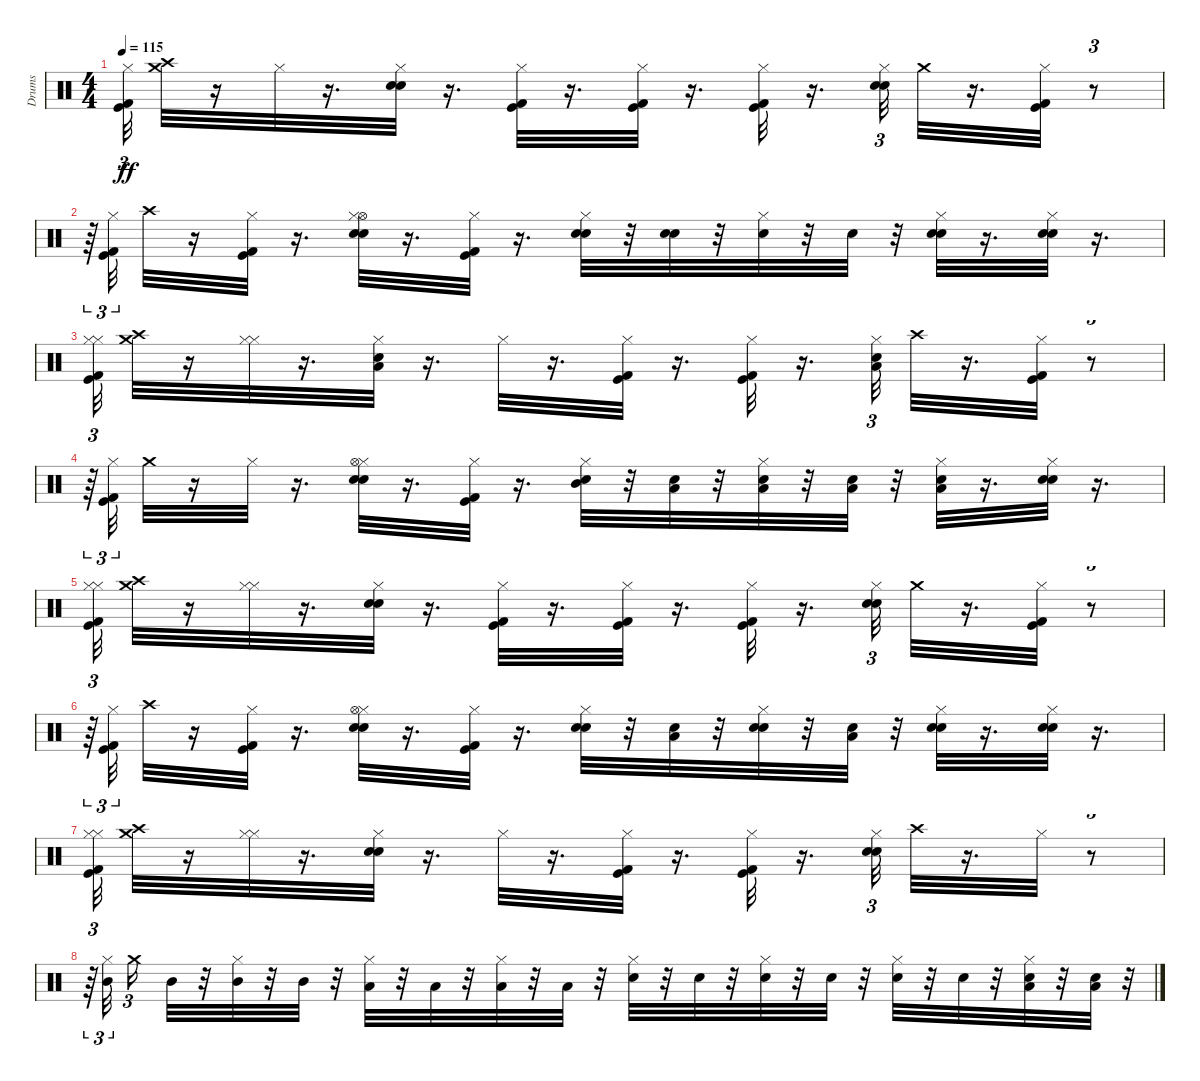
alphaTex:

\track ("Drums" "Drums") {instrument percussion}
\staff {score}
\articulation defaults
\ts (4 4)
\tempo 115
\clef neutral
\ks c
("Hi-Hat (closed)" "Kick (hit) 2" "Kick (hit)").32{tu (3 2) dy ff} ("Crash high (hit)" "Crash medium (hit)").32 r.16 "Hi-Hat (closed)".32 r.16{d} ("Electric Snare (hit)" "Hi-Hat (closed)" "Snare (hit) 2").32 r.16{d} ("Kick (hit) 2" "Kick (hit)" "Hi-Hat (closed)").32 r.16{d} ("Kick (hit)" "Kick (hit) 2" "Hi-Hat (closed)").32 r.16{d} ("Kick (hit) 2" "Hi-Hat (closed)" "Kick (hit)").32 r.16{d} ("Snare (hit) 2" "Electric Snare (hit)" "Hi-Hat (closed)").32{tu (3 2)} "Crash medium (hit)".32 r.16{d} ("Kick (hit)" "Hi-Hat (closed)" "Kick (hit) 2").32 r.8{tu (3 2)} |
r.64{tu (3 2)} ("Hi-Hat (closed)" "Kick (hit)" "Kick (hit) 2").32{tu (3 2)} "Crash high (hit)".32 r.16 ("Kick (hit)" "Hi-Hat (closed)" "Kick (hit) 2").32 r.16{d} ("Hi-Hat (open)" "Electric Snare (hit)" "Hi-Hat (closed)" "Snare (hit) 2").32 r.16{d} ("Kick (hit) 2" "Kick (hit)" "Hi-Hat (closed)").32 r.16{d} ("Electric Snare (hit)" "Snare (hit) 2" "Hi-Hat (closed)").32 r.32 ("Electric Snare (hit)" "Snare (hit) 2").32 r.32 ("Snare (hit) 2" "Hi-Hat (closed)").32 r.32 "Snare (hit) 2".32 r.32 ("Electric Snare (hit)" "Snare (hit) 2" "Hi-Hat (closed)").32 r.16{d} ("Snare (hit) 2" "Hi-Hat (closed)" "Electric Snare (hit)").32 r.16{d} |
("Kick (hit) 2" "Kick (hit)" "Hi-Hat (closed)" "Hi-Hat (closed)").32{tu (3 2)} ("Crash medium (hit)" "Crash high (hit)").32 r.16 ("Hi-Hat (closed)" "Hi-Hat (closed)").32 r.16{d} ("Hi-Hat (closed)" "Snare (hit) 2" "Low Floor Tom (hit)").32 r.16{d} "Hi-Hat (closed)".32 r.16{d} ("Hi-Hat (closed)" "Kick (hit)" "Kick (hit) 2").32 r.16{d} ("Kick (hit) 2" "Kick (hit)" "Hi-Hat (closed)").32 r.16{d} ("Snare (hit) 2" "Hi-Hat (closed)" "Low Floor Tom (hit)").32{tu (3 2)} "Crash high (hit)".32 r.16{d} ("Kick (hit) 2" "Hi-Hat (closed)" "Kick (hit)").32 r.8{tu (3 2)} |
r.64{tu (3 2)} ("Kick (hit) 2" "Hi-Hat (closed)" "Kick (hit)").32{tu (3 2)} "Crash medium (hit)".32 r.16 "Hi-Hat (closed)".32 r.16{d} ("Electric Snare (hit)" "Hi-Hat (closed)" "Snare (hit) 2" "Hi-Hat (open)").32 r.16{d} ("Hi-Hat (closed)" "Kick (hit) 2" "Kick (hit)").32 r.16{d} ("Hi-Hat (closed)" "Snare (hit) 2" "Mid Tom (hit)").32 r.32 ("Snare (hit) 2" "Low Tom (hit)").32 r.32 ("Low Floor Tom (hit)" "Snare (hit) 2" "Hi-Hat (closed)").32 r.32 ("Low Floor Tom (hit)" "Snare (hit) 2").32 r.32 ("Hi-Hat (closed)" "Snare (hit) 2" "Low Tom (hit)").32 r.16{d} ("Hi-Hat (closed)" "Electric Snare (hit)" "Snare (hit) 2").32 r.16{d} |
("Kick (hit)" "Kick (hit) 2" "Hi-Hat (closed)" "Hi-Hat (closed)").32{tu (3 2)} ("Crash medium (hit)" "Crash high (hit)").32 r.16 ("Hi-Hat (closed)" "Hi-Hat (closed)").32 r.16{d} ("Electric Snare (hit)" "Hi-Hat (closed)" "Snare (hit) 2").32 r.16{d} ("Hi-Hat (closed)" "Kick (hit)" "Kick (hit) 2").32 r.16{d} ("Kick (hit) 2" "Kick (hit)" "Hi-Hat (closed)").32 r.16{d} ("Hi-Hat (closed)" "Kick (hit)" "Kick (hit) 2").32 r.16{d} ("Electric Snare (hit)" "Hi-Hat (closed)" "Snare (hit) 2").32{tu (3 2)} "Crash medium (hit)".32 r.16{d} ("Kick (hit) 2" "Hi-Hat (closed)" "Kick (hit)").32 r.8{tu (3 2)} |
r.64{tu (3 2)} ("Kick (hit)" "Hi-Hat (closed)" "Kick (hit) 2").32{tu (3 2)} "Crash high (hit)".32 r.16 ("Kick (hit)" "Kick (hit) 2" "Hi-Hat (closed)").32 r.16{d} ("Electric Snare (hit)" "Hi-Hat (closed)" "Snare (hit) 2" "Hi-Hat (open)").32 r.16{d} ("Kick (hit) 2" "Kick (hit)" "Hi-Hat (closed)").32 r.16{d} ("Snare (hit) 2" "Hi-Hat (closed)" "Electric Snare (hit)").32 r.32 ("Low Floor Tom (hit)" "Snare (hit) 2").32 r.32 ("Electric Snare (hit)" "Snare (hit) 2" "Hi-Hat (closed)").32 r.32 ("Low Floor Tom (hit)" "Snare (hit) 2").32 r.32 ("Hi-Hat (closed)" "Snare (hit) 2" "Electric Snare (hit)").32 r.16{d} ("Electric Snare (hit)" "Snare (hit) 2" "Hi-Hat (closed)").32 r.16{d} |
("Hi-Hat (closed)" "Kick (hit) 2" "Kick (hit)" "Hi-Hat (closed)").32{tu (3 2)} ("Crash medium (hit)" "Crash high (hit)").32 r.16 ("Hi-Hat (closed)" "Hi-Hat (closed)").32 r.16{d} ("Electric Snare (hit)" "Hi-Hat (closed)" "Snare (hit) 2").32 r.16{d} "Hi-Hat (closed)".32 r.16{d} ("Kick (hit) 2" "Kick (hit)" "Hi-Hat (closed)").32 r.16{d} ("Kick (hit)" "Kick (hit) 2" "Hi-Hat (closed)").32 r.16{d} ("Electric Snare (hit)" "Hi-Hat (closed)" "Snare (hit) 2").32{tu (3 2)} "Crash high (hit)".32 r.16{d} "Hi-Hat (closed)".32 r.8{tu (3 2)} |
r.64{tu (3 2)} ("Hi-Hat (closed)" "Mid Tom (hit)").32{tu (3 2)} "Crash medium (hit)".16{tu (3 2)} "Mid Tom (hit)".32 r.32 ("Hi-Hat (closed)" "Mid Tom (hit)").32 r.32 "Mid Tom (hit)".32 r.32 ("Low Tom (hit)" "Hi-Hat (closed)").32 r.32 "Low Tom (hit)".32 r.32 ("Hi-Hat (closed)" "Low Tom (hit)").32 r.32 "Low Tom (hit)".32 r.32 ("Hi-Hat (closed)" "Electric Snare (hit)").32 r.32 "Electric Snare (hit)".32 r.32 ("Electric Snare (hit)" "Hi-Hat (closed)").32 r.32 "Electric Snare (hit)".32 r.32 ("Snare (hit) 2" "Hi-Hat (closed)").32 r.32 "Snare (hit) 2".32 r.32 ("Low Floor Tom (hit)" "Snare (hit) 2" "Hi-Hat (closed)").32 r.32 ("Low Floor Tom (hit)" "Snare (hit) 2").32 r.32{tu (3 2)}
